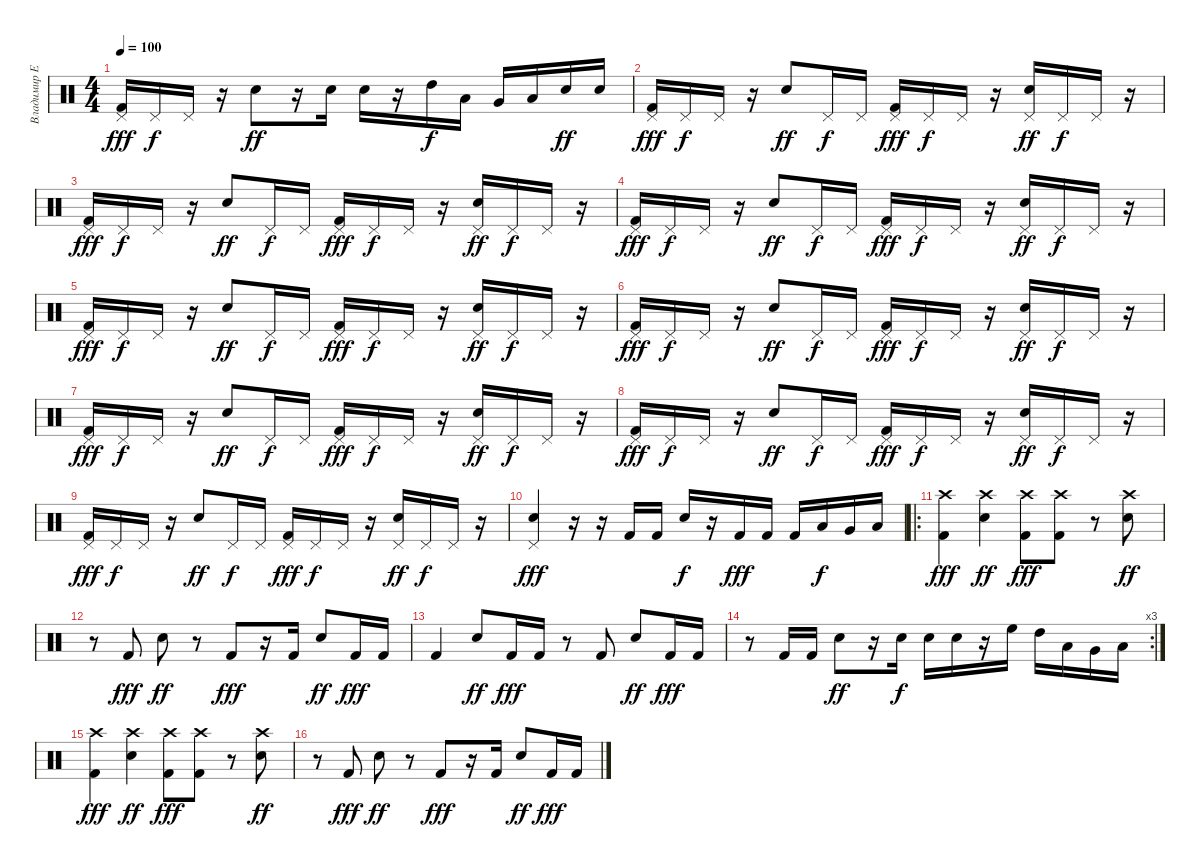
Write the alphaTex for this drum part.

\track ("Владимир Ермаков" "Владимир Е") {instrument percussion}
\staff {score}
\articulation defaults
\ts (4 4)
\tempo 100
\clef neutral
\ks c
("Kick (hit) 2" "Pedal Hi-Hat (hit)").16{dy fff} "Pedal Hi-Hat (hit)".16{dy f} "Pedal Hi-Hat (hit)".16 r.16 "Electric Snare (hit)".8{dy ff} r.16 "Electric Snare (hit)".16 "Electric Snare (hit)".16 r.16 "High Tom (hit)".16{dy f} "Low Tom (hit)".16 "Very Low Tom (hit)".16 "Low Floor Tom (hit)".16 "Electric Snare (hit)".16{dy ff} "Electric Snare (hit)".16 |
("Kick (hit) 2" "Pedal Hi-Hat (hit)").16{dy fff} "Pedal Hi-Hat (hit)".16{dy f} "Pedal Hi-Hat (hit)".16 r.16 "Electric Snare (hit)".8{dy ff} "Pedal Hi-Hat (hit)".16{dy f} "Pedal Hi-Hat (hit)".16 ("Kick (hit) 2" "Pedal Hi-Hat (hit)").16{dy fff} "Pedal Hi-Hat (hit)".16{dy f} "Pedal Hi-Hat (hit)".16 r.16 ("Electric Snare (hit)" "Pedal Hi-Hat (hit)").16{dy ff} "Pedal Hi-Hat (hit)".16{dy f} "Pedal Hi-Hat (hit)".16 r.16 |
("Kick (hit) 2" "Pedal Hi-Hat (hit)").16{dy fff} "Pedal Hi-Hat (hit)".16{dy f} "Pedal Hi-Hat (hit)".16 r.16 "Electric Snare (hit)".8{dy ff} "Pedal Hi-Hat (hit)".16{dy f} "Pedal Hi-Hat (hit)".16 ("Kick (hit) 2" "Pedal Hi-Hat (hit)").16{dy fff} "Pedal Hi-Hat (hit)".16{dy f} "Pedal Hi-Hat (hit)".16 r.16 ("Electric Snare (hit)" "Pedal Hi-Hat (hit)").16{dy ff} "Pedal Hi-Hat (hit)".16{dy f} "Pedal Hi-Hat (hit)".16 r.16 |
("Kick (hit) 2" "Pedal Hi-Hat (hit)").16{dy fff} "Pedal Hi-Hat (hit)".16{dy f} "Pedal Hi-Hat (hit)".16 r.16 "Electric Snare (hit)".8{dy ff} "Pedal Hi-Hat (hit)".16{dy f} "Pedal Hi-Hat (hit)".16 ("Kick (hit) 2" "Pedal Hi-Hat (hit)").16{dy fff} "Pedal Hi-Hat (hit)".16{dy f} "Pedal Hi-Hat (hit)".16 r.16 ("Electric Snare (hit)" "Pedal Hi-Hat (hit)").16{dy ff} "Pedal Hi-Hat (hit)".16{dy f} "Pedal Hi-Hat (hit)".16 r.16 |
("Kick (hit) 2" "Pedal Hi-Hat (hit)").16{dy fff} "Pedal Hi-Hat (hit)".16{dy f} "Pedal Hi-Hat (hit)".16 r.16 "Electric Snare (hit)".8{dy ff} "Pedal Hi-Hat (hit)".16{dy f} "Pedal Hi-Hat (hit)".16 ("Kick (hit) 2" "Pedal Hi-Hat (hit)").16{dy fff} "Pedal Hi-Hat (hit)".16{dy f} "Pedal Hi-Hat (hit)".16 r.16 ("Electric Snare (hit)" "Pedal Hi-Hat (hit)").16{dy ff} "Pedal Hi-Hat (hit)".16{dy f} "Pedal Hi-Hat (hit)".16 r.16 |
("Kick (hit) 2" "Pedal Hi-Hat (hit)").16{dy fff} "Pedal Hi-Hat (hit)".16{dy f} "Pedal Hi-Hat (hit)".16 r.16 "Electric Snare (hit)".8{dy ff} "Pedal Hi-Hat (hit)".16{dy f} "Pedal Hi-Hat (hit)".16 ("Kick (hit) 2" "Pedal Hi-Hat (hit)").16{dy fff} "Pedal Hi-Hat (hit)".16{dy f} "Pedal Hi-Hat (hit)".16 r.16 ("Electric Snare (hit)" "Pedal Hi-Hat (hit)").16{dy ff} "Pedal Hi-Hat (hit)".16{dy f} "Pedal Hi-Hat (hit)".16 r.16 |
("Kick (hit) 2" "Pedal Hi-Hat (hit)").16{dy fff} "Pedal Hi-Hat (hit)".16{dy f} "Pedal Hi-Hat (hit)".16 r.16 "Electric Snare (hit)".8{dy ff} "Pedal Hi-Hat (hit)".16{dy f} "Pedal Hi-Hat (hit)".16 ("Kick (hit) 2" "Pedal Hi-Hat (hit)").16{dy fff} "Pedal Hi-Hat (hit)".16{dy f} "Pedal Hi-Hat (hit)".16 r.16 ("Electric Snare (hit)" "Pedal Hi-Hat (hit)").16{dy ff} "Pedal Hi-Hat (hit)".16{dy f} "Pedal Hi-Hat (hit)".16 r.16 |
("Kick (hit) 2" "Pedal Hi-Hat (hit)").16{dy fff} "Pedal Hi-Hat (hit)".16{dy f} "Pedal Hi-Hat (hit)".16 r.16 "Electric Snare (hit)".8{dy ff} "Pedal Hi-Hat (hit)".16{dy f} "Pedal Hi-Hat (hit)".16 ("Kick (hit) 2" "Pedal Hi-Hat (hit)").16{dy fff} "Pedal Hi-Hat (hit)".16{dy f} "Pedal Hi-Hat (hit)".16 r.16 ("Electric Snare (hit)" "Pedal Hi-Hat (hit)").16{dy ff} "Pedal Hi-Hat (hit)".16{dy f} "Pedal Hi-Hat (hit)".16 r.16 |
("Kick (hit) 2" "Pedal Hi-Hat (hit)").16{dy fff} "Pedal Hi-Hat (hit)".16{dy f} "Pedal Hi-Hat (hit)".16 r.16 "Electric Snare (hit)".8{dy ff} "Pedal Hi-Hat (hit)".16{dy f} "Pedal Hi-Hat (hit)".16 ("Kick (hit) 2" "Pedal Hi-Hat (hit)").16{dy fff} "Pedal Hi-Hat (hit)".16{dy f} "Pedal Hi-Hat (hit)".16 r.16 ("Electric Snare (hit)" "Pedal Hi-Hat (hit)").16{dy ff} "Pedal Hi-Hat (hit)".16{dy f} "Pedal Hi-Hat (hit)".16 r.16 |
("Electric Snare (hit)" "Pedal Hi-Hat (hit)").4{dy fff} r.16 r.16 "Kick (hit) 2".16 "Kick (hit) 2".16 "Electric Snare (hit)".16{dy f} r.16 "Kick (hit) 2".16{dy fff} "Kick (hit) 2".16 "Kick (hit) 2".16 "Low Tom (hit)".16{dy f} "Very Low Tom (hit)".16 "Low Floor Tom (hit)".16 |
\ro
("Kick (hit) 2" "Crash high (hit)").4{dy fff} ("Electric Snare (hit)" "Crash high (hit)").4{dy ff} ("Kick (hit) 2" "Crash high (hit)").8{dy fff} ("Kick (hit) 2" "Crash high (hit)").8 r.8 ("Electric Snare (hit)" "Crash high (hit)").8{dy ff} |
r.8 "Kick (hit) 2".8{dy fff} "Electric Snare (hit)".8{dy ff} r.8 "Kick (hit) 2".8{dy fff} r.16 "Kick (hit) 2".16 "Electric Snare (hit)".8{dy ff} "Kick (hit) 2".16{dy fff} "Kick (hit) 2".16 |
"Kick (hit) 2".4 "Electric Snare (hit)".8{dy ff} "Kick (hit) 2".16{dy fff} "Kick (hit) 2".16 r.8 "Kick (hit) 2".8 "Electric Snare (hit)".8{dy ff} "Kick (hit) 2".16{dy fff} "Kick (hit) 2".16 |
\rc 3
r.8 "Kick (hit) 2".16 "Kick (hit) 2".16 "Electric Snare (hit)".8{dy ff} r.16 "Electric Snare (hit)".16{dy f} "Electric Snare (hit)".16 "Electric Snare (hit)".16 r.16 "High Floor Tom (hit)".16 "High Tom (hit)".16 "Low Tom (hit)".16 "Very Low Tom (hit)".16 "Low Floor Tom (hit)".16 |
("Kick (hit) 2" "Crash high (hit)").4{dy fff} ("Electric Snare (hit)" "Crash high (hit)").4{dy ff} ("Kick (hit) 2" "Crash high (hit)").8{dy fff} ("Kick (hit) 2" "Crash high (hit)").8 r.8 ("Electric Snare (hit)" "Crash high (hit)").8{dy ff} |
r.8 "Kick (hit) 2".8{dy fff} "Electric Snare (hit)".8{dy ff} r.8 "Kick (hit) 2".8{dy fff} r.16 "Kick (hit) 2".16 "Electric Snare (hit)".8{dy ff} "Kick (hit) 2".16{dy fff} "Kick (hit) 2".16
